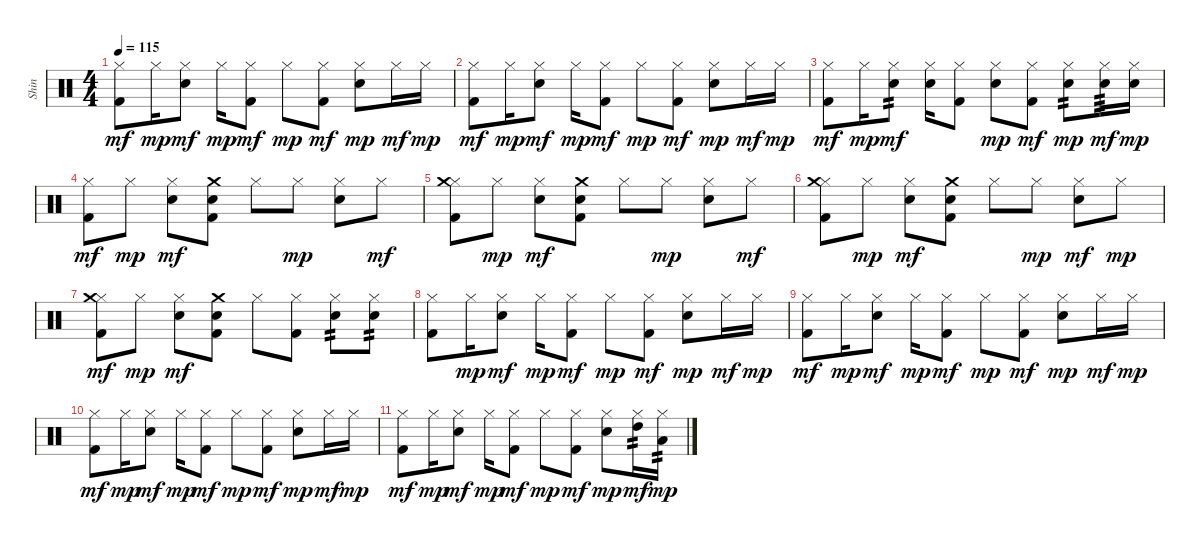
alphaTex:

\track ("Shin" "Shin") {instrument percussion}
\staff {score}
\articulation defaults
\ts (4 4)
\tempo 115
\clef neutral
\ks c
("Hi-Hat (closed)" "Kick (hit) 2").8{dy mf} "Hi-Hat (closed)".16{dy mp} ("Hi-Hat (closed)" "Snare (hit) 2").8{dy mf} "Hi-Hat (closed)".16{dy mp} ("Hi-Hat (closed)" "Kick (hit) 2").8{dy mf} "Hi-Hat (closed)".8{dy mp} ("Hi-Hat (closed)" "Kick (hit) 2").8{dy mf} ("Hi-Hat (closed)" "Snare (hit) 2").8{dy mp} "Hi-Hat (closed)".16{dy mf} "Hi-Hat (closed)".16{dy mp} |
("Hi-Hat (closed)" "Kick (hit) 2").8{dy mf} "Hi-Hat (closed)".16{dy mp} ("Hi-Hat (closed)" "Snare (hit) 2").8{dy mf} "Hi-Hat (closed)".16{dy mp} ("Hi-Hat (closed)" "Kick (hit) 2").8{dy mf} "Hi-Hat (closed)".8{dy mp} ("Hi-Hat (closed)" "Kick (hit) 2").8{dy mf} ("Hi-Hat (closed)" "Snare (hit) 2").8{dy mp} "Hi-Hat (closed)".16{dy mf} "Hi-Hat (closed)".16{dy mp} |
("Hi-Hat (closed)" "Kick (hit) 2").8{dy mf} "Hi-Hat (closed)".16{dy mp} ("Hi-Hat (closed)" "Snare (hit) 2").8{tp 2 dy mf} ("Hi-Hat (closed)" "Snare (hit) 2").16 ("Hi-Hat (closed)" "Kick (hit) 2").8 ("Hi-Hat (closed)" "Snare (hit) 2").8{dy mp} ("Hi-Hat (closed)" "Kick (hit) 2").8{dy mf} ("Hi-Hat (closed)" "Snare (hit) 2").8{tp 2 dy mp} ("Hi-Hat (closed)" "Snare (hit) 2").16{tp 3 dy mf} ("Hi-Hat (closed)" "Snare (hit) 2").16{dy mp} |
("Hi-Hat (closed)" "Kick (hit) 2").8{dy mf} "Hi-Hat (closed)".8{dy mp} ("Hi-Hat (closed)" "Snare (hit) 2").8{dy mf} ("Snare (hit)" "Crash medium (hit)" "Kick (hit) 2").8 "Hi-Hat (closed)".8 "Hi-Hat (closed)".8{dy mp} ("Hi-Hat (closed)" "Snare (hit) 2").8 "Hi-Hat (closed)".8{dy mf} |
("Hi-Hat (closed)" "Crash medium (hit)" "Kick (hit) 2").8 "Hi-Hat (closed)".8{dy mp} ("Hi-Hat (closed)" "Snare (hit) 2").8{dy mf} ("Snare (hit)" "Crash medium (hit)" "Kick (hit) 2").8 "Hi-Hat (closed)".8 "Hi-Hat (closed)".8{dy mp} ("Hi-Hat (closed)" "Snare (hit) 2").8 "Hi-Hat (closed)".8{dy mf} |
("Hi-Hat (closed)" "Crash medium (hit)" "Kick (hit) 2").8 "Hi-Hat (closed)".8{dy mp} ("Hi-Hat (closed)" "Snare (hit) 2").8{dy mf} ("Snare (hit)" "Crash medium (hit)" "Kick (hit) 2").8 "Hi-Hat (closed)".8 "Hi-Hat (closed)".8{dy mp} ("Hi-Hat (closed)" "Snare (hit) 2").8{dy mf} "Hi-Hat (closed)".8{dy mp} |
("Hi-Hat (closed)" "Crash medium (hit)" "Kick (hit) 2").8{dy mf} "Hi-Hat (closed)".8{dy mp} ("Hi-Hat (closed)" "Snare (hit) 2").8{dy mf} ("Snare (hit)" "Crash medium (hit)" "Kick (hit) 2").8 "Hi-Hat (closed)".8 ("Hi-Hat (closed)" "Kick (hit) 2").8 ("Hi-Hat (closed)" "Snare (hit) 2").8{tp 2} ("Hi-Hat (closed)" "Snare (hit) 2").8{tp 2} |
("Hi-Hat (closed)" "Kick (hit) 2").8 "Hi-Hat (closed)".16{dy mp} ("Hi-Hat (closed)" "Snare (hit) 2").8{dy mf} "Hi-Hat (closed)".16{dy mp} ("Hi-Hat (closed)" "Kick (hit) 2").8{dy mf} "Hi-Hat (closed)".8{dy mp} ("Hi-Hat (closed)" "Kick (hit) 2").8{dy mf} ("Hi-Hat (closed)" "Snare (hit) 2").8{dy mp} "Hi-Hat (closed)".16{dy mf} "Hi-Hat (closed)".16{dy mp} |
("Hi-Hat (closed)" "Kick (hit) 2").8{dy mf} "Hi-Hat (closed)".16{dy mp} ("Hi-Hat (closed)" "Snare (hit) 2").8{dy mf} "Hi-Hat (closed)".16{dy mp} ("Hi-Hat (closed)" "Kick (hit) 2").8{dy mf} "Hi-Hat (closed)".8{dy mp} ("Hi-Hat (closed)" "Kick (hit) 2").8{dy mf} ("Hi-Hat (closed)" "Snare (hit) 2").8{dy mp} "Hi-Hat (closed)".16{dy mf} "Hi-Hat (closed)".16{dy mp} |
("Hi-Hat (closed)" "Kick (hit) 2").8{dy mf} "Hi-Hat (closed)".16{dy mp} ("Hi-Hat (closed)" "Snare (hit) 2").8{dy mf} "Hi-Hat (closed)".16{dy mp} ("Hi-Hat (closed)" "Kick (hit) 2").8{dy mf} "Hi-Hat (closed)".8{dy mp} ("Hi-Hat (closed)" "Kick (hit) 2").8{dy mf} ("Hi-Hat (closed)" "Snare (hit) 2").8{dy mp} "Hi-Hat (closed)".16{dy mf} "Hi-Hat (closed)".16{dy mp} |
("Hi-Hat (closed)" "Kick (hit) 2").8{dy mf} "Hi-Hat (closed)".16{dy mp} ("Hi-Hat (closed)" "Snare (hit) 2").8{dy mf} "Hi-Hat (closed)".16{dy mp} ("Hi-Hat (closed)" "Kick (hit) 2").8{dy mf} "Hi-Hat (closed)".8{dy mp} ("Hi-Hat (closed)" "Kick (hit) 2").8{dy mf} ("Hi-Hat (closed)" "Snare (hit) 2").8{dy mp} ("Hi-Hat (closed)" "High Tom (hit)").16{tp 2 dy mf} ("Hi-Hat (closed)" "Low Tom (hit)").16{tp 2 dy mp}
